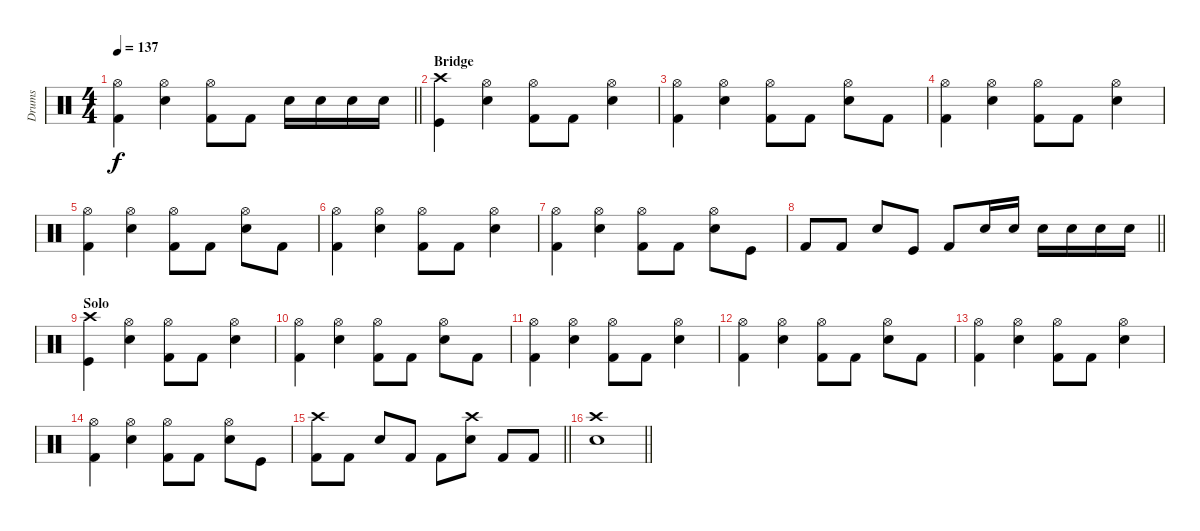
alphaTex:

\track ("Drums" "Drums") {instrument percussion}
\staff {score}
\articulation defaults
\ts (4 4)
\tempo 137
\clef neutral
\barLineRight lightlight
\ks c
("Hi-Hat (open)" "Kick (hit) 2").4{dy f} ("Hi-Hat (open)" "Electric Snare (hit)").4 ("Hi-Hat (open)" "Kick (hit) 2").8 "Kick (hit) 2".8 "Electric Snare (hit)".16 "Electric Snare (hit)".16 "Electric Snare (hit)".16 "Electric Snare (hit)".16 |
\section ("" "Bridge ")
("Crash high (hit)" "Kick (hit)").4 ("Hi-Hat (open)" "Electric Snare (hit)").4 ("Hi-Hat (open)" "Kick (hit) 2").8 "Kick (hit) 2".8 ("Hi-Hat (open)" "Electric Snare (hit)").4 |
("Hi-Hat (open)" "Kick (hit) 2").4 ("Hi-Hat (open)" "Electric Snare (hit)").4 ("Hi-Hat (open)" "Kick (hit) 2").8 "Kick (hit) 2".8 ("Hi-Hat (open)" "Electric Snare (hit)").8 "Kick (hit) 2".8 |
("Hi-Hat (open)" "Kick (hit) 2").4 ("Hi-Hat (open)" "Electric Snare (hit)").4 ("Hi-Hat (open)" "Kick (hit) 2").8 "Kick (hit) 2".8 ("Hi-Hat (open)" "Electric Snare (hit)").4 |
("Hi-Hat (open)" "Kick (hit) 2").4 ("Hi-Hat (open)" "Electric Snare (hit)").4 ("Hi-Hat (open)" "Kick (hit) 2").8 "Kick (hit) 2".8 ("Hi-Hat (open)" "Electric Snare (hit)").8 "Kick (hit) 2".8 |
("Hi-Hat (open)" "Kick (hit) 2").4 ("Hi-Hat (open)" "Electric Snare (hit)").4 ("Hi-Hat (open)" "Kick (hit) 2").8 "Kick (hit) 2".8 ("Hi-Hat (open)" "Electric Snare (hit)").4 |
("Hi-Hat (open)" "Kick (hit) 2").4 ("Hi-Hat (open)" "Electric Snare (hit)").4 ("Hi-Hat (open)" "Kick (hit) 2").8 "Kick (hit) 2".8 ("Hi-Hat (open)" "Electric Snare (hit)").8 "Kick (hit)".8 |
\barLineRight lightlight "Kick (hit) 2".8 "Kick (hit) 2".8 "Electric Snare (hit)".8 "Kick (hit)".8 "Kick (hit) 2".8 "Electric Snare (hit)".16 "Electric Snare (hit)".16 "Electric Snare (hit)".16 "Electric Snare (hit)".16 "Electric Snare (hit)".16 "Electric Snare (hit)".16
|
\section ("" "Solo")
("Crash high (hit)" "Kick (hit)").4 ("Hi-Hat (open)" "Electric Snare (hit)").4 ("Hi-Hat (open)" "Kick (hit) 2").8 "Kick (hit) 2".8 ("Hi-Hat (open)" "Electric Snare (hit)").4 |
("Hi-Hat (open)" "Kick (hit) 2").4 ("Hi-Hat (open)" "Electric Snare (hit)").4 ("Hi-Hat (open)" "Kick (hit) 2").8 "Kick (hit) 2".8 ("Hi-Hat (open)" "Electric Snare (hit)").8 "Kick (hit) 2".8 |
("Hi-Hat (open)" "Kick (hit) 2").4 ("Hi-Hat (open)" "Electric Snare (hit)").4 ("Hi-Hat (open)" "Kick (hit) 2").8 "Kick (hit) 2".8 ("Hi-Hat (open)" "Electric Snare (hit)").4 |
("Hi-Hat (open)" "Kick (hit) 2").4 ("Hi-Hat (open)" "Electric Snare (hit)").4 ("Hi-Hat (open)" "Kick (hit) 2").8 "Kick (hit) 2".8 ("Hi-Hat (open)" "Electric Snare (hit)").8 "Kick (hit) 2".8 |
("Hi-Hat (open)" "Kick (hit) 2").4 ("Hi-Hat (open)" "Electric Snare (hit)").4 ("Hi-Hat (open)" "Kick (hit) 2").8 "Kick (hit) 2".8 ("Hi-Hat (open)" "Electric Snare (hit)").4 |
("Hi-Hat (open)" "Kick (hit) 2").4 ("Hi-Hat (open)" "Electric Snare (hit)").4 ("Hi-Hat (open)" "Kick (hit) 2").8 "Kick (hit) 2".8 ("Hi-Hat (open)" "Electric Snare (hit)").8 "Kick (hit)".8 |
\barLineRight lightlight
("Crash high (hit)" "Kick (hit) 2").8 "Kick (hit) 2".8 "Electric Snare (hit)".8 "Kick (hit) 2".8 "Kick (hit) 2".8 ("Crash high (hit)" "Electric Snare (hit)").8 "Kick (hit) 2".8 "Kick (hit) 2".8 |
\barLineRight lightlight
("Crash high (hit)" "Electric Snare (hit)").1
